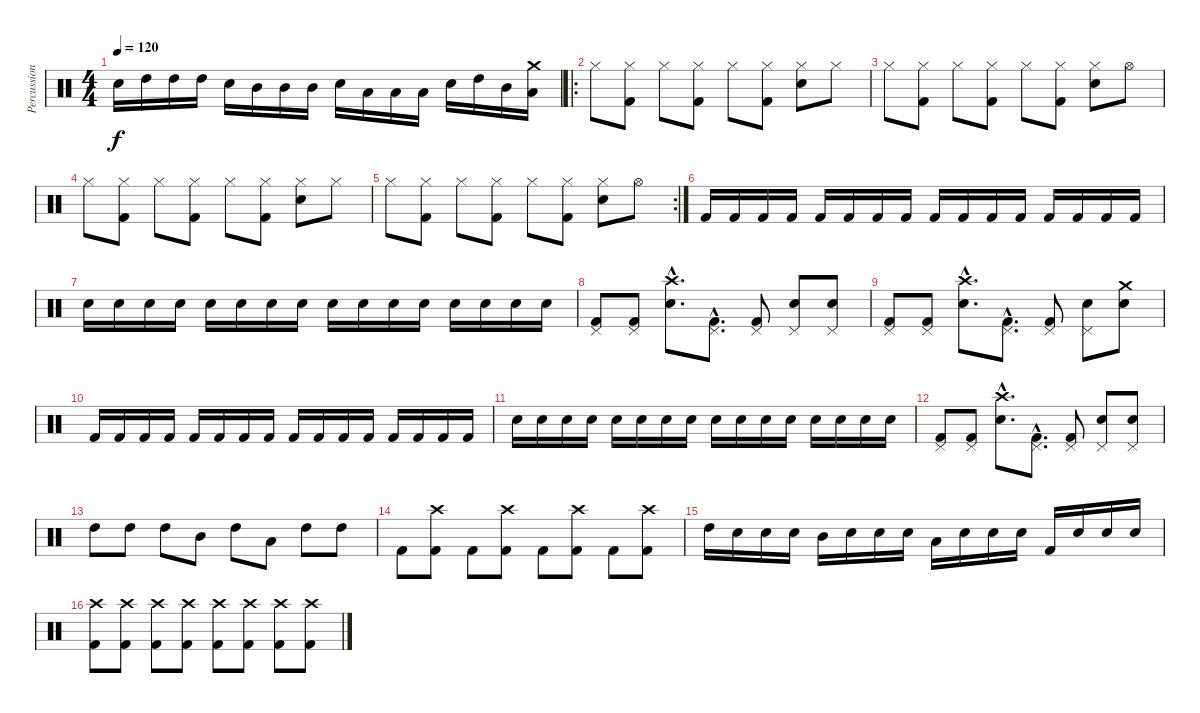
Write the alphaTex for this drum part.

\track ("Percussion" "Percussion") {instrument percussion}
\staff {score}
\articulation defaults
\ts (4 4)
\tempo 120
\clef neutral
\ks c "Electric Snare (hit)".16{dy f} "High Tom (hit)".16 "High Tom (hit)".16 "High Tom (hit)".16 "Electric Snare (hit)".16 "Mid Tom (hit)".16 "Mid Tom (hit)".16 "Mid Tom (hit)".16 "Electric Snare (hit)".16 "Low Tom (hit)".16 "Low Tom (hit)".16 "Low Tom (hit)".16 "Electric Snare (hit)".16 "High Tom (hit)".16 "Mid Tom (hit)".16
("Crash medium (hit)" "Low Tom (hit)").16 |
\ro "Hi-Hat (closed)".8
("Kick (hit) 2" "Hi-Hat (closed)").8 "Hi-Hat (closed)".8 ("Kick (hit) 2" "Hi-Hat (closed)").8 "Hi-Hat (closed)".8 ("Kick (hit) 2" "Hi-Hat (closed)").8 ("Electric Snare (hit)" "Hi-Hat (closed)").8 "Hi-Hat (closed)".8 |
"Hi-Hat (closed)".8 ("Kick (hit) 2" "Hi-Hat (closed)").8 "Hi-Hat (closed)".8 ("Kick (hit) 2" "Hi-Hat (closed)").8 "Hi-Hat (closed)".8 ("Kick (hit) 2" "Hi-Hat (closed)").8 ("Electric Snare (hit)" "Hi-Hat (closed)").8 "Hi-Hat (open)".8 |
"Hi-Hat (closed)".8 ("Kick (hit) 2" "Hi-Hat (closed)").8 "Hi-Hat (closed)".8 ("Kick (hit) 2" "Hi-Hat (closed)").8 "Hi-Hat (closed)".8 ("Kick (hit) 2" "Hi-Hat (closed)").8 ("Electric Snare (hit)" "Hi-Hat (closed)").8 "Hi-Hat (closed)".8 |
\rc 2 "Hi-Hat (closed)".8
("Kick (hit) 2" "Hi-Hat (closed)").8 "Hi-Hat (closed)".8 ("Kick (hit) 2" "Hi-Hat (closed)").8 "Hi-Hat (closed)".8 ("Kick (hit) 2" "Hi-Hat (closed)").8 ("Electric Snare (hit)" "Hi-Hat (closed)").8 "Hi-Hat (open)".8 |
"Kick (hit) 2".16 "Kick (hit) 2".16 "Kick (hit) 2".16 "Kick (hit) 2".16 "Kick (hit) 2".16 "Kick (hit) 2".16 "Kick (hit) 2".16 "Kick (hit) 2".16 "Kick (hit) 2".16 "Kick (hit) 2".16 "Kick (hit) 2".16 "Kick (hit) 2".16 "Kick (hit) 2".16 "Kick (hit) 2".16 "Kick (hit) 2".16 "Kick (hit) 2".16 |
"Electric Snare (hit)".16 "Electric Snare (hit)".16 "Electric Snare (hit)".16 "Electric Snare (hit)".16 "Electric Snare (hit)".16 "Electric Snare (hit)".16 "Electric Snare (hit)".16 "Electric Snare (hit)".16 "Electric Snare (hit)".16 "Electric Snare (hit)".16 "Electric Snare (hit)".16 "Electric Snare (hit)".16 "Electric Snare (hit)".16 "Electric Snare (hit)".16 "Electric Snare (hit)".16 "Electric Snare (hit)".16 |
("Pedal Hi-Hat (hit)" "Kick (hit) 2").8 ("Pedal Hi-Hat (hit)" "Kick (hit) 2").8 ("Crash high (hit)"{hac} "Electric Snare (hit)"{hac}).8{d} ("Pedal Hi-Hat (hit)"{hac} "Kick (hit) 2"{hac}).8{d} ("Pedal Hi-Hat (hit)" "Kick (hit) 2").8 ("Pedal Hi-Hat (hit)" "Electric Snare (hit)").8 ("Pedal Hi-Hat (hit)" "Electric Snare (hit)").8 |
("Pedal Hi-Hat (hit)" "Kick (hit) 2").8 ("Pedal Hi-Hat (hit)" "Kick (hit) 2").8 ("Crash high (hit)"{hac} "Electric Snare (hit)"{hac}).8{d} ("Pedal Hi-Hat (hit)"{hac} "Kick (hit) 2"{hac}).8{d} ("Pedal Hi-Hat (hit)" "Kick (hit) 2").8 ("Pedal Hi-Hat (hit)" "Electric Snare (hit)").8 ("Crash medium (hit)" "Electric Snare (hit)").8 |
"Kick (hit) 2".16 "Kick (hit) 2".16 "Kick (hit) 2".16 "Kick (hit) 2".16 "Kick (hit) 2".16 "Kick (hit) 2".16 "Kick (hit) 2".16 "Kick (hit) 2".16 "Kick (hit) 2".16 "Kick (hit) 2".16 "Kick (hit) 2".16 "Kick (hit) 2".16 "Kick (hit) 2".16 "Kick (hit) 2".16 "Kick (hit) 2".16 "Kick (hit) 2".16 |
"Electric Snare (hit)".16 "Electric Snare (hit)".16 "Electric Snare (hit)".16 "Electric Snare (hit)".16 "Electric Snare (hit)".16 "Electric Snare (hit)".16 "Electric Snare (hit)".16 "Electric Snare (hit)".16 "Electric Snare (hit)".16 "Electric Snare (hit)".16 "Electric Snare (hit)".16 "Electric Snare (hit)".16 "Electric Snare (hit)".16 "Electric Snare (hit)".16 "Electric Snare (hit)".16 "Electric Snare (hit)".16 |
("Pedal Hi-Hat (hit)" "Kick (hit) 2").8 ("Pedal Hi-Hat (hit)" "Kick (hit) 2").8 ("Crash high (hit)"{hac} "Electric Snare (hit)"{hac}).8{d} ("Pedal Hi-Hat (hit)"{hac} "Kick (hit) 2"{hac}).8{d} ("Pedal Hi-Hat (hit)" "Kick (hit) 2").8 ("Pedal Hi-Hat (hit)" "Electric Snare (hit)").8 ("Pedal Hi-Hat (hit)" "Electric Snare (hit)").8 |
"High Tom (hit)".8 "High Tom (hit)".8 "High Tom (hit)".8 "Mid Tom (hit)".8 "High Tom (hit)".8 "Low Tom (hit)".8 "High Tom (hit)".8 "High Tom (hit)".8 |
"Kick (hit) 2".8 ("Crash high (hit)" "Kick (hit) 2").8 "Kick (hit) 2".8 ("Crash high (hit)" "Kick (hit) 2").8 "Kick (hit) 2".8 ("Crash high (hit)" "Kick (hit) 2").8 "Kick (hit) 2".8 ("Crash high (hit)" "Kick (hit) 2").8 |
"High Tom (hit)".16 "Electric Snare (hit)".16 "Electric Snare (hit)".16 "Electric Snare (hit)".16 "Mid Tom (hit)".16 "Electric Snare (hit)".16 "Electric Snare (hit)".16 "Electric Snare (hit)".16 "Low Tom (hit)".16 "Electric Snare (hit)".16 "Electric Snare (hit)".16 "Electric Snare (hit)".16 "Kick (hit) 2".16 "Electric Snare (hit)".16 "Electric Snare (hit)".16 "Electric Snare (hit)".16 |
("Crash high (hit)" "Kick (hit) 2").8 ("Crash high (hit)" "Kick (hit) 2").8 ("Crash high (hit)" "Kick (hit) 2").8 ("Crash high (hit)" "Kick (hit) 2").8 ("Crash high (hit)" "Kick (hit) 2").8 ("Crash high (hit)" "Kick (hit) 2").8 ("Crash high (hit)" "Kick (hit) 2").8 ("Crash high (hit)" "Kick (hit) 2").8
